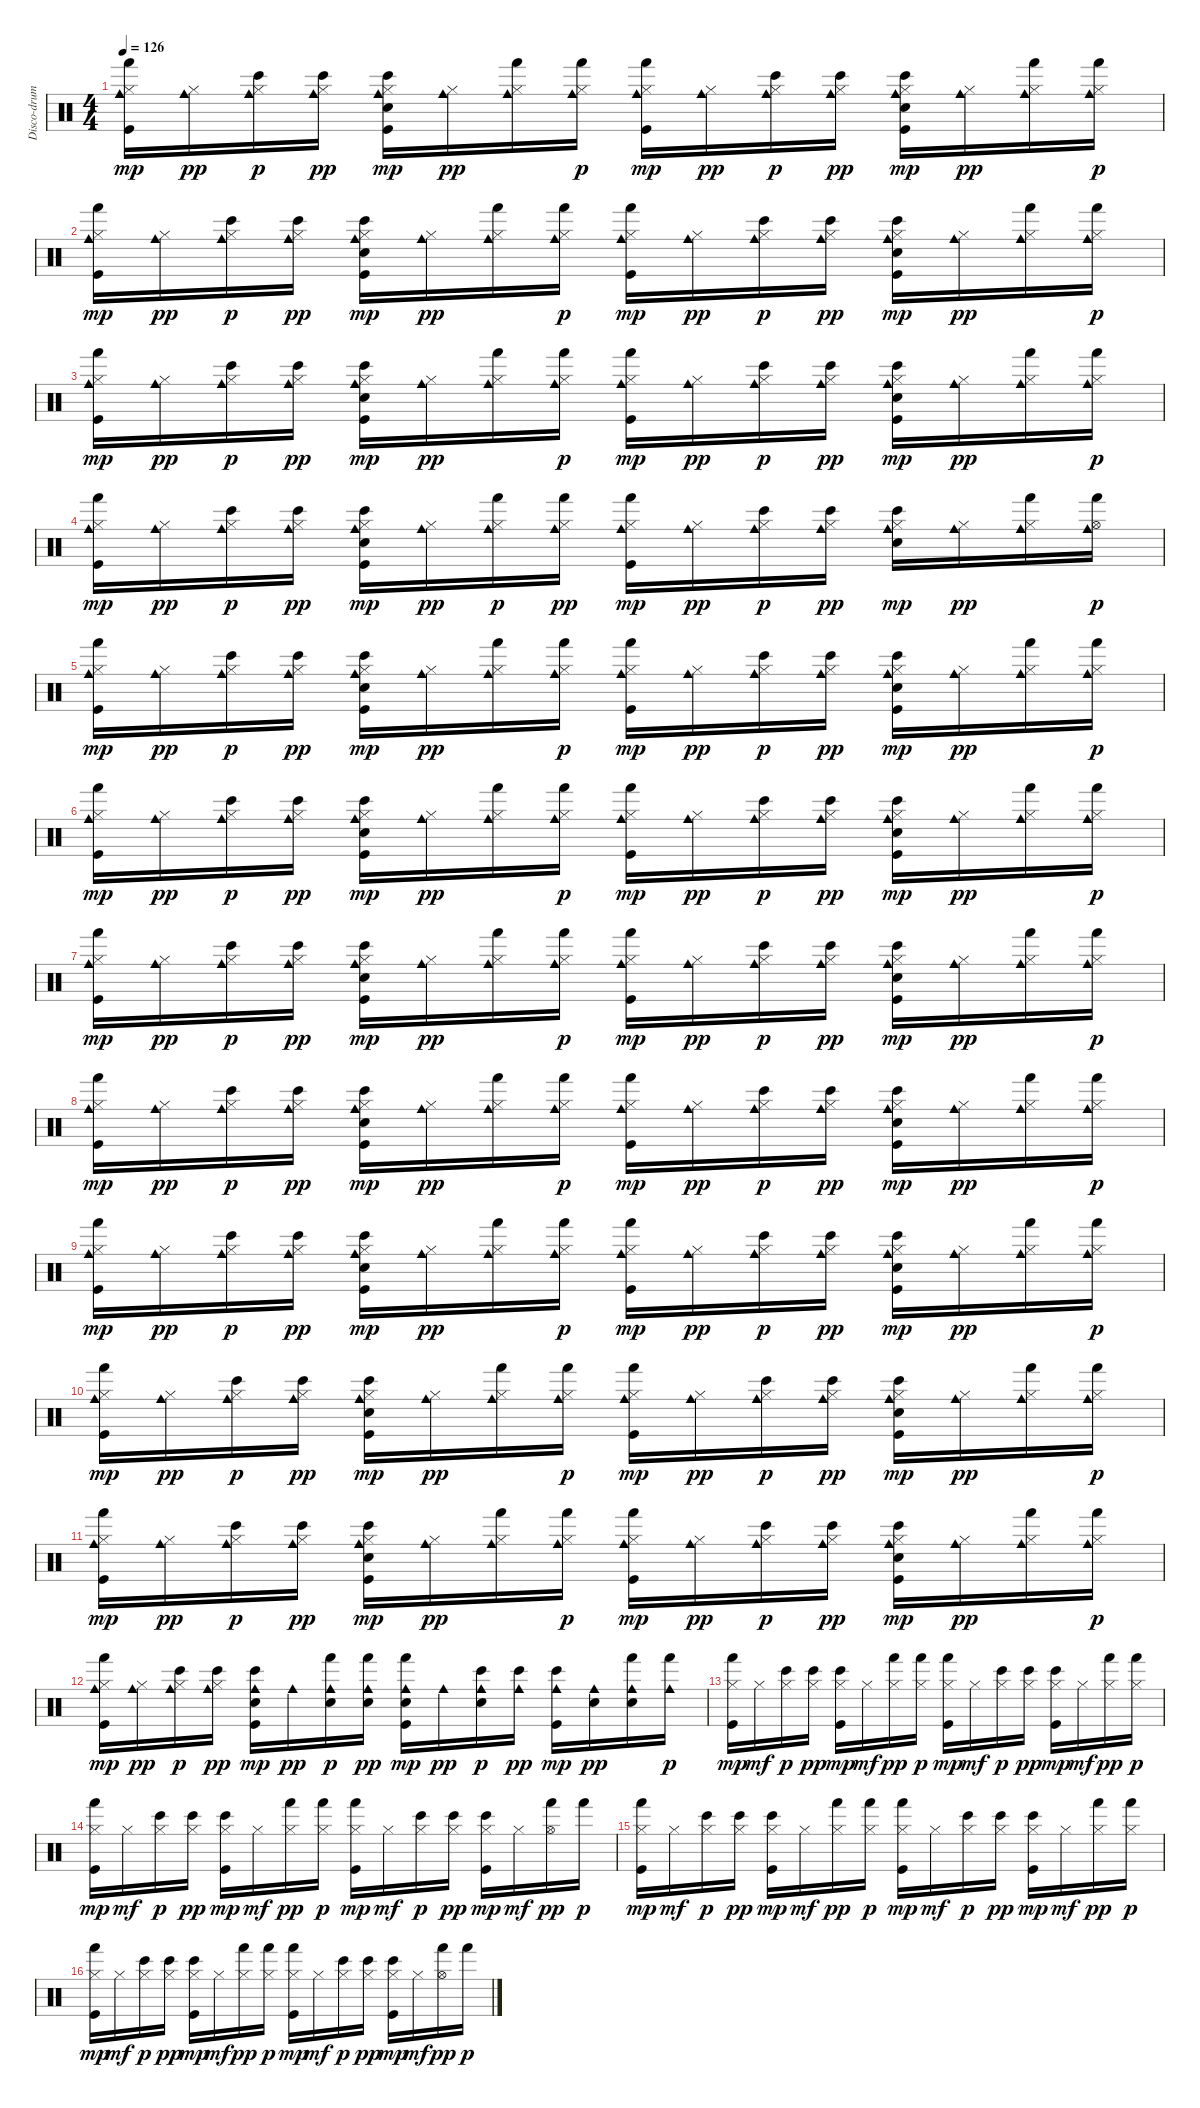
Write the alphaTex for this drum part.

\track ("Disco-drums !" "Disco-drum") {instrument percussion}
\staff {score}
\articulation defaults
\ts (4 4)
\tempo 126
\clef neutral
\ks c
("Hi-Hat (closed)" "Kick (hit)" "Cowbell medium (hit)" "Hand (hit)").16{dy mp} ("Hi-Hat (closed)" "Cowbell medium (hit)").16{dy pp} ("Hi-Hat (closed)" "Cowbell medium (hit)" "Bongo High (hit)").16{dy p} ("Hi-Hat (closed)" "Cowbell medium (hit)" "Bongo High (hit)").16{dy pp} ("Hi-Hat (closed)" "Kick (hit)" "Snare (hit) 2" "Cowbell medium (hit)" "Bongo High (hit)").16{dy mp} ("Hi-Hat (closed)" "Cowbell medium (hit)").16{dy pp} ("Hi-Hat (closed)" "Cowbell medium (hit)" "Hand (hit)").16 ("Hi-Hat (closed)" "Cowbell medium (hit)" "Hand (hit)").16{dy p} ("Hi-Hat (closed)" "Kick (hit)" "Cowbell medium (hit)" "Hand (hit)").16{dy mp} ("Hi-Hat (closed)" "Cowbell medium (hit)").16{dy pp} ("Hi-Hat (closed)" "Cowbell medium (hit)" "Bongo High (hit)").16{dy p} ("Hi-Hat (closed)" "Cowbell medium (hit)" "Bongo High (hit)").16{dy pp} ("Hi-Hat (closed)" "Kick (hit)" "Snare (hit) 2" "Cowbell medium (hit)" "Bongo High (hit)").16{dy mp} ("Hi-Hat (closed)" "Cowbell medium (hit)").16{dy pp} ("Hi-Hat (closed)" "Cowbell medium (hit)" "Hand (hit)").16 ("Hi-Hat (closed)" "Cowbell medium (hit)" "Hand (hit)").16{dy p} |
("Hi-Hat (closed)" "Kick (hit)" "Cowbell medium (hit)" "Hand (hit)").16{dy mp} ("Hi-Hat (closed)" "Cowbell medium (hit)").16{dy pp} ("Hi-Hat (closed)" "Cowbell medium (hit)" "Bongo High (hit)").16{dy p} ("Hi-Hat (closed)" "Cowbell medium (hit)" "Bongo High (hit)").16{dy pp} ("Hi-Hat (closed)" "Kick (hit)" "Snare (hit) 2" "Cowbell medium (hit)" "Bongo High (hit)").16{dy mp} ("Hi-Hat (closed)" "Cowbell medium (hit)").16{dy pp} ("Hi-Hat (closed)" "Cowbell medium (hit)" "Hand (hit)").16 ("Hi-Hat (closed)" "Cowbell medium (hit)" "Hand (hit)").16{dy p} ("Hi-Hat (closed)" "Kick (hit)" "Cowbell medium (hit)" "Hand (hit)").16{dy mp} ("Hi-Hat (closed)" "Cowbell medium (hit)").16{dy pp} ("Hi-Hat (closed)" "Cowbell medium (hit)" "Bongo High (hit)").16{dy p} ("Hi-Hat (closed)" "Cowbell medium (hit)" "Bongo High (hit)").16{dy pp} ("Hi-Hat (closed)" "Kick (hit)" "Snare (hit) 2" "Cowbell medium (hit)" "Bongo High (hit)").16{dy mp} ("Hi-Hat (closed)" "Cowbell medium (hit)").16{dy pp} ("Hi-Hat (closed)" "Cowbell medium (hit)" "Hand (hit)").16 ("Hi-Hat (closed)" "Cowbell medium (hit)" "Hand (hit)").16{dy p} |
("Hi-Hat (closed)" "Kick (hit)" "Cowbell medium (hit)" "Hand (hit)").16{dy mp} ("Hi-Hat (closed)" "Cowbell medium (hit)").16{dy pp} ("Hi-Hat (closed)" "Cowbell medium (hit)" "Bongo High (hit)").16{dy p} ("Hi-Hat (closed)" "Cowbell medium (hit)" "Bongo High (hit)").16{dy pp} ("Hi-Hat (closed)" "Kick (hit)" "Snare (hit) 2" "Cowbell medium (hit)" "Bongo High (hit)").16{dy mp} ("Hi-Hat (closed)" "Cowbell medium (hit)").16{dy pp} ("Hi-Hat (closed)" "Cowbell medium (hit)" "Hand (hit)").16 ("Hi-Hat (closed)" "Cowbell medium (hit)" "Hand (hit)").16{dy p} ("Hi-Hat (closed)" "Kick (hit)" "Cowbell medium (hit)" "Hand (hit)").16{dy mp} ("Hi-Hat (closed)" "Cowbell medium (hit)").16{dy pp} ("Hi-Hat (closed)" "Cowbell medium (hit)" "Bongo High (hit)").16{dy p} ("Hi-Hat (closed)" "Cowbell medium (hit)" "Bongo High (hit)").16{dy pp} ("Hi-Hat (closed)" "Kick (hit)" "Snare (hit) 2" "Cowbell medium (hit)" "Bongo High (hit)").16{dy mp} ("Hi-Hat (closed)" "Cowbell medium (hit)").16{dy pp} ("Hi-Hat (closed)" "Cowbell medium (hit)" "Hand (hit)").16 ("Hi-Hat (closed)" "Cowbell medium (hit)" "Hand (hit)").16{dy p} |
("Hi-Hat (closed)" "Kick (hit)" "Cowbell medium (hit)" "Hand (hit)").16{dy mp} ("Hi-Hat (closed)" "Cowbell medium (hit)").16{dy pp} ("Hi-Hat (closed)" "Cowbell medium (hit)" "Bongo High (hit)").16{dy p} ("Hi-Hat (closed)" "Cowbell medium (hit)" "Bongo High (hit)").16{dy pp} ("Hi-Hat (closed)" "Kick (hit)" "Snare (hit) 2" "Cowbell medium (hit)" "Bongo High (hit)").16{dy mp} ("Hi-Hat (closed)" "Cowbell medium (hit)").16{dy pp} ("Hi-Hat (closed)" "Cowbell medium (hit)" "Hand (hit)").16{dy p} ("Hi-Hat (closed)" "Cowbell medium (hit)" "Hand (hit)").16{dy pp} ("Hi-Hat (closed)" "Kick (hit)" "Cowbell medium (hit)" "Hand (hit)").16{dy mp} ("Hi-Hat (closed)" "Cowbell medium (hit)").16{dy pp} ("Hi-Hat (closed)" "Cowbell medium (hit)" "Bongo High (hit)").16{dy p} ("Hi-Hat (closed)" "Cowbell medium (hit)" "Bongo High (hit)").16{dy pp} ("Hi-Hat (closed)" "Snare (hit) 2" "Cowbell medium (hit)" "Bongo High (hit)").16{dy mp} ("Hi-Hat (closed)" "Cowbell medium (hit)").16{dy pp} ("Hi-Hat (closed)" "Cowbell medium (hit)" "Hand (hit)").16 ("Hi-Hat (open)" "Cowbell medium (hit)" "Hand (hit)").16{dy p} |
("Hi-Hat (closed)" "Kick (hit)" "Cowbell medium (hit)" "Hand (hit)").16{dy mp} ("Hi-Hat (closed)" "Cowbell medium (hit)").16{dy pp} ("Hi-Hat (closed)" "Cowbell medium (hit)" "Bongo High (hit)").16{dy p} ("Hi-Hat (closed)" "Cowbell medium (hit)" "Bongo High (hit)").16{dy pp} ("Hi-Hat (closed)" "Kick (hit)" "Snare (hit) 2" "Cowbell medium (hit)" "Bongo High (hit)").16{dy mp} ("Hi-Hat (closed)" "Cowbell medium (hit)").16{dy pp} ("Hi-Hat (closed)" "Cowbell medium (hit)" "Hand (hit)").16 ("Hi-Hat (closed)" "Cowbell medium (hit)" "Hand (hit)").16{dy p} ("Hi-Hat (closed)" "Kick (hit)" "Cowbell medium (hit)" "Hand (hit)").16{dy mp} ("Hi-Hat (closed)" "Cowbell medium (hit)").16{dy pp} ("Hi-Hat (closed)" "Cowbell medium (hit)" "Bongo High (hit)").16{dy p} ("Hi-Hat (closed)" "Cowbell medium (hit)" "Bongo High (hit)").16{dy pp} ("Hi-Hat (closed)" "Kick (hit)" "Snare (hit) 2" "Cowbell medium (hit)" "Bongo High (hit)").16{dy mp} ("Hi-Hat (closed)" "Cowbell medium (hit)").16{dy pp} ("Hi-Hat (closed)" "Cowbell medium (hit)" "Hand (hit)").16 ("Hi-Hat (closed)" "Cowbell medium (hit)" "Hand (hit)").16{dy p} |
("Hi-Hat (closed)" "Kick (hit)" "Cowbell medium (hit)" "Hand (hit)").16{dy mp} ("Hi-Hat (closed)" "Cowbell medium (hit)").16{dy pp} ("Hi-Hat (closed)" "Cowbell medium (hit)" "Bongo High (hit)").16{dy p} ("Hi-Hat (closed)" "Cowbell medium (hit)" "Bongo High (hit)").16{dy pp} ("Hi-Hat (closed)" "Kick (hit)" "Snare (hit) 2" "Cowbell medium (hit)" "Bongo High (hit)").16{dy mp} ("Hi-Hat (closed)" "Cowbell medium (hit)").16{dy pp} ("Hi-Hat (closed)" "Cowbell medium (hit)" "Hand (hit)").16 ("Hi-Hat (closed)" "Cowbell medium (hit)" "Hand (hit)").16{dy p} ("Hi-Hat (closed)" "Kick (hit)" "Cowbell medium (hit)" "Hand (hit)").16{dy mp} ("Hi-Hat (closed)" "Cowbell medium (hit)").16{dy pp} ("Hi-Hat (closed)" "Cowbell medium (hit)" "Bongo High (hit)").16{dy p} ("Hi-Hat (closed)" "Cowbell medium (hit)" "Bongo High (hit)").16{dy pp} ("Hi-Hat (closed)" "Kick (hit)" "Snare (hit) 2" "Cowbell medium (hit)" "Bongo High (hit)").16{dy mp} ("Hi-Hat (closed)" "Cowbell medium (hit)").16{dy pp} ("Hi-Hat (closed)" "Cowbell medium (hit)" "Hand (hit)").16 ("Hi-Hat (closed)" "Cowbell medium (hit)" "Hand (hit)").16{dy p} |
("Hi-Hat (closed)" "Kick (hit)" "Cowbell medium (hit)" "Hand (hit)").16{dy mp} ("Hi-Hat (closed)" "Cowbell medium (hit)").16{dy pp} ("Hi-Hat (closed)" "Cowbell medium (hit)" "Bongo High (hit)").16{dy p} ("Hi-Hat (closed)" "Cowbell medium (hit)" "Bongo High (hit)").16{dy pp} ("Hi-Hat (closed)" "Kick (hit)" "Snare (hit) 2" "Cowbell medium (hit)" "Bongo High (hit)").16{dy mp} ("Hi-Hat (closed)" "Cowbell medium (hit)").16{dy pp} ("Hi-Hat (closed)" "Cowbell medium (hit)" "Hand (hit)").16 ("Hi-Hat (closed)" "Cowbell medium (hit)" "Hand (hit)").16{dy p} ("Hi-Hat (closed)" "Kick (hit)" "Cowbell medium (hit)" "Hand (hit)").16{dy mp} ("Hi-Hat (closed)" "Cowbell medium (hit)").16{dy pp} ("Hi-Hat (closed)" "Cowbell medium (hit)" "Bongo High (hit)").16{dy p} ("Hi-Hat (closed)" "Cowbell medium (hit)" "Bongo High (hit)").16{dy pp} ("Hi-Hat (closed)" "Kick (hit)" "Snare (hit) 2" "Cowbell medium (hit)" "Bongo High (hit)").16{dy mp} ("Hi-Hat (closed)" "Cowbell medium (hit)").16{dy pp} ("Hi-Hat (closed)" "Cowbell medium (hit)" "Hand (hit)").16 ("Hi-Hat (closed)" "Cowbell medium (hit)" "Hand (hit)").16{dy p} |
("Hi-Hat (closed)" "Kick (hit)" "Cowbell medium (hit)" "Hand (hit)").16{dy mp} ("Hi-Hat (closed)" "Cowbell medium (hit)").16{dy pp} ("Hi-Hat (closed)" "Cowbell medium (hit)" "Bongo High (hit)").16{dy p} ("Hi-Hat (closed)" "Cowbell medium (hit)" "Bongo High (hit)").16{dy pp} ("Hi-Hat (closed)" "Kick (hit)" "Snare (hit) 2" "Cowbell medium (hit)" "Bongo High (hit)").16{dy mp} ("Hi-Hat (closed)" "Cowbell medium (hit)").16{dy pp} ("Hi-Hat (closed)" "Cowbell medium (hit)" "Hand (hit)").16 ("Hi-Hat (closed)" "Cowbell medium (hit)" "Hand (hit)").16{dy p} ("Hi-Hat (closed)" "Kick (hit)" "Cowbell medium (hit)" "Hand (hit)").16{dy mp} ("Hi-Hat (closed)" "Cowbell medium (hit)").16{dy pp} ("Hi-Hat (closed)" "Cowbell medium (hit)" "Bongo High (hit)").16{dy p} ("Hi-Hat (closed)" "Cowbell medium (hit)" "Bongo High (hit)").16{dy pp} ("Hi-Hat (closed)" "Kick (hit)" "Snare (hit) 2" "Cowbell medium (hit)" "Bongo High (hit)").16{dy mp} ("Hi-Hat (closed)" "Cowbell medium (hit)").16{dy pp} ("Hi-Hat (closed)" "Cowbell medium (hit)" "Hand (hit)").16 ("Hi-Hat (closed)" "Cowbell medium (hit)" "Hand (hit)").16{dy p} |
("Hi-Hat (closed)" "Kick (hit)" "Cowbell medium (hit)" "Hand (hit)").16{dy mp} ("Hi-Hat (closed)" "Cowbell medium (hit)").16{dy pp} ("Hi-Hat (closed)" "Cowbell medium (hit)" "Bongo High (hit)").16{dy p} ("Hi-Hat (closed)" "Cowbell medium (hit)" "Bongo High (hit)").16{dy pp} ("Hi-Hat (closed)" "Kick (hit)" "Snare (hit) 2" "Cowbell medium (hit)" "Bongo High (hit)").16{dy mp} ("Hi-Hat (closed)" "Cowbell medium (hit)").16{dy pp} ("Hi-Hat (closed)" "Cowbell medium (hit)" "Hand (hit)").16 ("Hi-Hat (closed)" "Cowbell medium (hit)" "Hand (hit)").16{dy p} ("Hi-Hat (closed)" "Kick (hit)" "Cowbell medium (hit)" "Hand (hit)").16{dy mp} ("Hi-Hat (closed)" "Cowbell medium (hit)").16{dy pp} ("Hi-Hat (closed)" "Cowbell medium (hit)" "Bongo High (hit)").16{dy p} ("Hi-Hat (closed)" "Cowbell medium (hit)" "Bongo High (hit)").16{dy pp} ("Hi-Hat (closed)" "Kick (hit)" "Snare (hit) 2" "Cowbell medium (hit)" "Bongo High (hit)").16{dy mp} ("Hi-Hat (closed)" "Cowbell medium (hit)").16{dy pp} ("Hi-Hat (closed)" "Cowbell medium (hit)" "Hand (hit)").16 ("Hi-Hat (closed)" "Cowbell medium (hit)" "Hand (hit)").16{dy p} |
("Hi-Hat (closed)" "Kick (hit)" "Cowbell medium (hit)" "Hand (hit)").16{dy mp} ("Hi-Hat (closed)" "Cowbell medium (hit)").16{dy pp} ("Hi-Hat (closed)" "Cowbell medium (hit)" "Bongo High (hit)").16{dy p} ("Hi-Hat (closed)" "Cowbell medium (hit)" "Bongo High (hit)").16{dy pp} ("Hi-Hat (closed)" "Kick (hit)" "Snare (hit) 2" "Cowbell medium (hit)" "Bongo High (hit)").16{dy mp} ("Hi-Hat (closed)" "Cowbell medium (hit)").16{dy pp} ("Hi-Hat (closed)" "Cowbell medium (hit)" "Hand (hit)").16 ("Hi-Hat (closed)" "Cowbell medium (hit)" "Hand (hit)").16{dy p} ("Hi-Hat (closed)" "Kick (hit)" "Cowbell medium (hit)" "Hand (hit)").16{dy mp} ("Hi-Hat (closed)" "Cowbell medium (hit)").16{dy pp} ("Hi-Hat (closed)" "Cowbell medium (hit)" "Bongo High (hit)").16{dy p} ("Hi-Hat (closed)" "Cowbell medium (hit)" "Bongo High (hit)").16{dy pp} ("Hi-Hat (closed)" "Kick (hit)" "Snare (hit) 2" "Cowbell medium (hit)" "Bongo High (hit)").16{dy mp} ("Hi-Hat (closed)" "Cowbell medium (hit)").16{dy pp} ("Hi-Hat (closed)" "Cowbell medium (hit)" "Hand (hit)").16 ("Hi-Hat (closed)" "Cowbell medium (hit)" "Hand (hit)").16{dy p} |
("Hi-Hat (closed)" "Kick (hit)" "Cowbell medium (hit)" "Hand (hit)").16{dy mp} ("Hi-Hat (closed)" "Cowbell medium (hit)").16{dy pp} ("Hi-Hat (closed)" "Cowbell medium (hit)" "Bongo High (hit)").16{dy p} ("Hi-Hat (closed)" "Cowbell medium (hit)" "Bongo High (hit)").16{dy pp} ("Hi-Hat (closed)" "Kick (hit)" "Snare (hit) 2" "Cowbell medium (hit)" "Bongo High (hit)").16{dy mp} ("Hi-Hat (closed)" "Cowbell medium (hit)").16{dy pp} ("Hi-Hat (closed)" "Cowbell medium (hit)" "Hand (hit)").16 ("Hi-Hat (closed)" "Cowbell medium (hit)" "Hand (hit)").16{dy p} ("Hi-Hat (closed)" "Kick (hit)" "Cowbell medium (hit)" "Hand (hit)").16{dy mp} ("Hi-Hat (closed)" "Cowbell medium (hit)").16{dy pp} ("Hi-Hat (closed)" "Cowbell medium (hit)" "Bongo High (hit)").16{dy p} ("Hi-Hat (closed)" "Cowbell medium (hit)" "Bongo High (hit)").16{dy pp} ("Hi-Hat (closed)" "Kick (hit)" "Snare (hit) 2" "Cowbell medium (hit)" "Bongo High (hit)").16{dy mp} ("Hi-Hat (closed)" "Cowbell medium (hit)").16{dy pp} ("Hi-Hat (closed)" "Cowbell medium (hit)" "Hand (hit)").16 ("Hi-Hat (closed)" "Cowbell medium (hit)" "Hand (hit)").16{dy p} |
("Hi-Hat (closed)" "Kick (hit)" "Cowbell medium (hit)" "Hand (hit)").16{dy mp} ("Hi-Hat (closed)" "Cowbell medium (hit)").16{dy pp} ("Hi-Hat (closed)" "Cowbell medium (hit)" "Bongo High (hit)").16{dy p} ("Hi-Hat (closed)" "Cowbell medium (hit)" "Bongo High (hit)").16{dy pp} ("Kick (hit)" "Snare (hit) 2" "Cowbell medium (hit)" "Bongo High (hit)").16{dy mp} "Cowbell medium (hit)".16{dy pp} ("Snare (hit) 2" "Cowbell medium (hit)" "Hand (hit)").16{dy p} ("Snare (hit) 2" "Cowbell medium (hit)" "Hand (hit)").16{dy pp} ("Kick (hit)" "Snare (hit) 2" "Cowbell medium (hit)" "Hand (hit)").16{dy mp} "Cowbell medium (hit)".16{dy pp} ("Snare (hit) 2" "Cowbell medium (hit)" "Bongo High (hit)").16{dy p} ("Cowbell medium (hit)" "Bongo High (hit)").16{dy pp} ("Kick (hit)" "Cowbell medium (hit)" "Bongo High (hit)").16{dy mp} ("Snare (hit) 2" "Cowbell medium (hit)").16{dy pp} ("Snare (hit) 2" "Cowbell medium (hit)" "Hand (hit)").16 ("Cowbell medium (hit)" "Hand (hit)").16{dy p} |
("Hi-Hat (closed)" "Kick (hit)" "Hand (hit)").16{dy mp} "Hi-Hat (closed)".16{dy mf} ("Hi-Hat (closed)" "Bongo High (hit)").16{dy p} ("Hi-Hat (closed)" "Bongo High (hit)").16{dy pp} ("Hi-Hat (closed)" "Kick (hit)" "Bongo High (hit)").16{dy mp} "Hi-Hat (closed)".16{dy mf} ("Hi-Hat (closed)" "Hand (hit)").16{dy pp} ("Hi-Hat (closed)" "Hand (hit)").16{dy p} ("Hi-Hat (closed)" "Kick (hit)" "Hand (hit)").16{dy mp} "Hi-Hat (closed)".16{dy mf} ("Hi-Hat (closed)" "Bongo High (hit)").16{dy p} ("Hi-Hat (closed)" "Bongo High (hit)").16{dy pp} ("Hi-Hat (closed)" "Kick (hit)" "Bongo High (hit)").16{dy mp} "Hi-Hat (closed)".16{dy mf} ("Hi-Hat (closed)" "Hand (hit)").16{dy pp} ("Hi-Hat (closed)" "Hand (hit)").16{dy p} |
("Hi-Hat (closed)" "Kick (hit)" "Hand (hit)").16{dy mp} "Hi-Hat (closed)".16{dy mf} ("Hi-Hat (closed)" "Bongo High (hit)").16{dy p} ("Hi-Hat (closed)" "Bongo High (hit)").16{dy pp} ("Hi-Hat (closed)" "Kick (hit)" "Bongo High (hit)").16{dy mp} "Hi-Hat (closed)".16{dy mf} ("Hi-Hat (closed)" "Hand (hit)").16{dy pp} ("Hi-Hat (closed)" "Hand (hit)").16{dy p} ("Hi-Hat (closed)" "Kick (hit)" "Hand (hit)").16{dy mp} "Hi-Hat (closed)".16{dy mf} ("Hi-Hat (closed)" "Bongo High (hit)").16{dy p} ("Hi-Hat (closed)" "Bongo High (hit)").16{dy pp} ("Hi-Hat (closed)" "Kick (hit)" "Bongo High (hit)").16{dy mp} "Hi-Hat (closed)".16{dy mf} ("Hi-Hat (open)" "Hand (hit)").16{dy pp} "Hand (hit)".16{dy p} |
("Hi-Hat (closed)" "Kick (hit)" "Hand (hit)").16{dy mp} "Hi-Hat (closed)".16{dy mf} ("Hi-Hat (closed)" "Bongo High (hit)").16{dy p} ("Hi-Hat (closed)" "Bongo High (hit)").16{dy pp} ("Hi-Hat (closed)" "Kick (hit)" "Bongo High (hit)").16{dy mp} "Hi-Hat (closed)".16{dy mf} ("Hi-Hat (closed)" "Hand (hit)").16{dy pp} ("Hi-Hat (closed)" "Hand (hit)").16{dy p} ("Hi-Hat (closed)" "Kick (hit)" "Hand (hit)").16{dy mp} "Hi-Hat (closed)".16{dy mf} ("Hi-Hat (closed)" "Bongo High (hit)").16{dy p} ("Hi-Hat (closed)" "Bongo High (hit)").16{dy pp} ("Hi-Hat (closed)" "Kick (hit)" "Bongo High (hit)").16{dy mp} "Hi-Hat (closed)".16{dy mf} ("Hi-Hat (closed)" "Hand (hit)").16{dy pp} ("Hi-Hat (closed)" "Hand (hit)").16{dy p} |
("Hi-Hat (closed)" "Kick (hit)" "Hand (hit)").16{dy mp} "Hi-Hat (closed)".16{dy mf} ("Hi-Hat (closed)" "Bongo High (hit)").16{dy p} ("Hi-Hat (closed)" "Bongo High (hit)").16{dy pp} ("Hi-Hat (closed)" "Kick (hit)" "Bongo High (hit)").16{dy mp} "Hi-Hat (closed)".16{dy mf} ("Hi-Hat (closed)" "Hand (hit)").16{dy pp} ("Hi-Hat (closed)" "Hand (hit)").16{dy p} ("Hi-Hat (closed)" "Kick (hit)" "Hand (hit)").16{dy mp} "Hi-Hat (closed)".16{dy mf} ("Hi-Hat (closed)" "Bongo High (hit)").16{dy p} ("Hi-Hat (closed)" "Bongo High (hit)").16{dy pp} ("Hi-Hat (closed)" "Kick (hit)" "Bongo High (hit)").16{dy mp} "Hi-Hat (closed)".16{dy mf} ("Hi-Hat (open)" "Hand (hit)").16{dy pp} "Hand (hit)".16{dy p}
